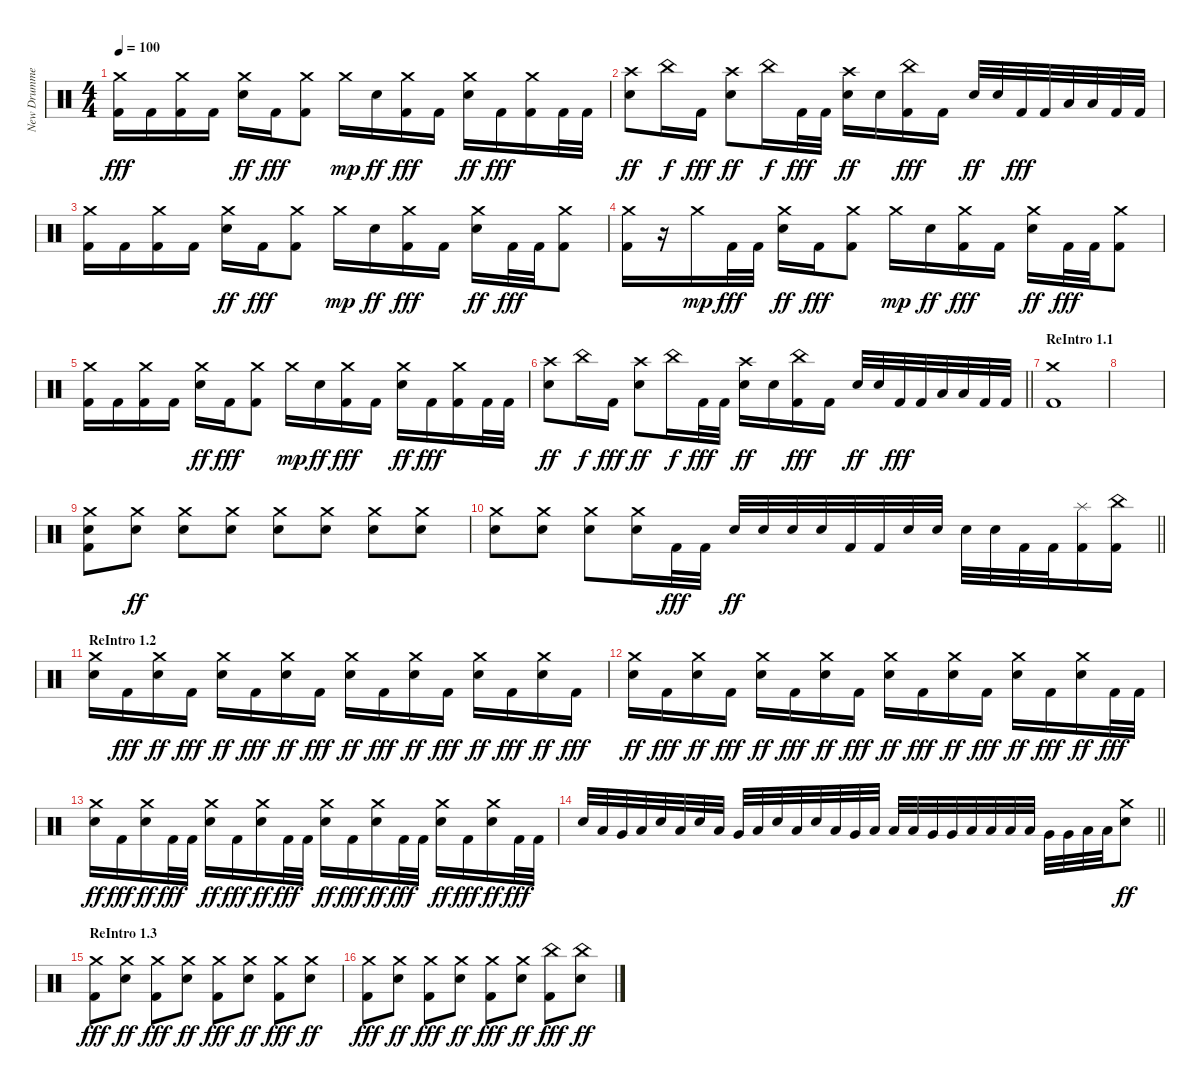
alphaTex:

\track ("New Drummer" "New Drumme") {instrument percussion}
\staff {score}
\articulation defaults
\ts (4 4)
\tempo 100
\clef neutral
\ks c
("Crash medium (hit)" "Kick (hit) 2").16{dy fff} "Kick (hit) 2".16 ("Crash medium (hit)" "Kick (hit) 2").16 "Kick (hit) 2".16 ("Crash medium (hit)" "Electric Snare (hit)").16{dy ff} "Kick (hit) 2".16{dy fff} ("Crash medium (hit)" "Kick (hit) 2").8 "Crash medium (hit)".16{dy mp} "Electric Snare (hit)".16{dy ff} ("Crash medium (hit)" "Kick (hit) 2").16{dy fff} "Kick (hit) 2".16 ("Crash medium (hit)" "Electric Snare (hit)").16{dy ff} "Kick (hit) 2".16{dy fff} ("Crash medium (hit)" "Kick (hit) 2").16 "Kick (hit) 2".32 "Kick (hit) 2".32 |
("Crash high (hit)" "Electric Snare (hit)").8{dy ff} "China (hit)".16{dy f} "Kick (hit) 2".16{dy fff} ("Crash high (hit)" "Electric Snare (hit)").8{dy ff} "China (hit)".16{dy f} "Kick (hit) 2".32{dy fff} "Kick (hit) 2".32 ("Crash high (hit)" "Electric Snare (hit)").16{dy ff} "Electric Snare (hit)".16 ("China (hit)" "Kick (hit) 2").16{dy fff} "Kick (hit) 2".16 "Electric Snare (hit)".32{dy ff} "Electric Snare (hit)".32 "Kick (hit) 2".32{dy fff} "Kick (hit) 2".32 "Low Tom (hit)".32 "Low Tom (hit)".32 "Kick (hit) 2".32 "Kick (hit) 2".32 |
("Crash medium (hit)" "Kick (hit) 2").16 "Kick (hit) 2".16 ("Crash medium (hit)" "Kick (hit) 2").16 "Kick (hit) 2".16 ("Crash medium (hit)" "Electric Snare (hit)").16{dy ff} "Kick (hit) 2".16{dy fff} ("Crash medium (hit)" "Kick (hit) 2").8 "Crash medium (hit)".16{dy mp} "Electric Snare (hit)".16{dy ff} ("Crash medium (hit)" "Kick (hit) 2").16{dy fff} "Kick (hit) 2".16 ("Crash medium (hit)" "Electric Snare (hit)").16{dy ff} "Kick (hit) 2".32{dy fff} "Kick (hit) 2".32 ("Crash medium (hit)" "Kick (hit) 2").8 |
("Crash medium (hit)" "Kick (hit) 2").16 r.16 "Crash medium (hit)".16{dy mp} "Kick (hit) 2".32{dy fff} "Kick (hit) 2".32 ("Crash medium (hit)" "Electric Snare (hit)").16{dy ff} "Kick (hit) 2".16{dy fff} ("Crash medium (hit)" "Kick (hit) 2").8 "Crash medium (hit)".16{dy mp} "Electric Snare (hit)".16{dy ff} ("Crash medium (hit)" "Kick (hit) 2").16{dy fff} "Kick (hit) 2".16 ("Crash medium (hit)" "Electric Snare (hit)").16{dy ff} "Kick (hit) 2".32{dy fff} "Kick (hit) 2".32 ("Crash medium (hit)" "Kick (hit) 2").8 |
("Crash medium (hit)" "Kick (hit) 2").16 "Kick (hit) 2".16 ("Crash medium (hit)" "Kick (hit) 2").16 "Kick (hit) 2".16 ("Crash medium (hit)" "Electric Snare (hit)").16{dy ff} "Kick (hit) 2".16{dy fff} ("Crash medium (hit)" "Kick (hit) 2").8 "Crash medium (hit)".16{dy mp} "Electric Snare (hit)".16{dy ff} ("Crash medium (hit)" "Kick (hit) 2").16{dy fff} "Kick (hit) 2".16 ("Crash medium (hit)" "Electric Snare (hit)").16{dy ff} "Kick (hit) 2".16{dy fff} ("Crash medium (hit)" "Kick (hit) 2").16 "Kick (hit) 2".32 "Kick (hit) 2".32 |
\barLineRight lightlight
("Crash high (hit)" "Electric Snare (hit)").8{dy ff} "China (hit)".16{dy f} "Kick (hit) 2".16{dy fff} ("Crash high (hit)" "Electric Snare (hit)").8{dy ff} "China (hit)".16{dy f} "Kick (hit) 2".32{dy fff} "Kick (hit) 2".32 ("Crash high (hit)" "Electric Snare (hit)").16{dy ff} "Electric Snare (hit)".16 ("China (hit)" "Kick (hit) 2").16{dy fff} "Kick (hit) 2".16 "Electric Snare (hit)".32{dy ff} "Electric Snare (hit)".32 "Kick (hit) 2".32{dy fff} "Kick (hit) 2".32 "Low Tom (hit)".32 "Low Tom (hit)".32 "Kick (hit) 2".32 "Kick (hit) 2".32 |
\section ("" "ReIntro 1.1")
("Crash medium (hit)" "Kick (hit) 2").1 |
|
("Crash medium (hit)" "Electric Snare (hit)" "Kick (hit) 2").8 ("Crash medium (hit)" "Electric Snare (hit)").8{dy ff} ("Crash medium (hit)" "Electric Snare (hit)").8 ("Crash medium (hit)" "Electric Snare (hit)").8 ("Crash medium (hit)" "Electric Snare (hit)").8 ("Crash medium (hit)" "Electric Snare (hit)").8 ("Crash medium (hit)" "Electric Snare (hit)").8 ("Crash medium (hit)" "Electric Snare (hit)").8 |
\barLineRight lightlight
("Crash medium (hit)" "Electric Snare (hit)").8 ("Crash medium (hit)" "Electric Snare (hit)").8 ("Crash medium (hit)" "Electric Snare (hit)").8 ("Crash medium (hit)" "Electric Snare (hit)").16 "Kick (hit) 2".32{dy fff} "Kick (hit) 2".32 "Electric Snare (hit)".32{dy ff} "Electric Snare (hit)".32 "Electric Snare (hit)".32 "Electric Snare (hit)".32 "Kick (hit) 2".32 "Kick (hit) 2".32 "Electric Snare (hit)".32 "Electric Snare (hit)".32 "Electric Snare (hit)".32 "Electric Snare (hit)".32 "Kick (hit) 2".32 "Kick (hit) 2".32 ("Splash (hit)" "Kick (hit) 2").16 ("China (hit)" "Kick (hit) 2").16 |
\section ("" "ReIntro 1.2")
("Crash medium (hit)" "Electric Snare (hit)").16 "Kick (hit) 2".16{dy fff} ("Crash medium (hit)" "Electric Snare (hit)").16{dy ff} "Kick (hit) 2".16{dy fff} ("Crash medium (hit)" "Electric Snare (hit)").16{dy ff} "Kick (hit) 2".16{dy fff} ("Crash medium (hit)" "Electric Snare (hit)").16{dy ff} "Kick (hit) 2".16{dy fff} ("Crash medium (hit)" "Electric Snare (hit)").16{dy ff} "Kick (hit) 2".16{dy fff} ("Crash medium (hit)" "Electric Snare (hit)").16{dy ff} "Kick (hit) 2".16{dy fff} ("Crash medium (hit)" "Electric Snare (hit)").16{dy ff} "Kick (hit) 2".16{dy fff} ("Crash medium (hit)" "Electric Snare (hit)").16{dy ff} "Kick (hit) 2".16{dy fff} |
("Crash medium (hit)" "Electric Snare (hit)").16{dy ff} "Kick (hit) 2".16{dy fff} ("Crash medium (hit)" "Electric Snare (hit)").16{dy ff} "Kick (hit) 2".16{dy fff} ("Crash medium (hit)" "Electric Snare (hit)").16{dy ff} "Kick (hit) 2".16{dy fff} ("Crash medium (hit)" "Electric Snare (hit)").16{dy ff} "Kick (hit) 2".16{dy fff} ("Crash medium (hit)" "Electric Snare (hit)").16{dy ff} "Kick (hit) 2".16{dy fff} ("Crash medium (hit)" "Electric Snare (hit)").16{dy ff} "Kick (hit) 2".16{dy fff} ("Crash medium (hit)" "Electric Snare (hit)").16{dy ff} "Kick (hit) 2".16{dy fff} ("Crash medium (hit)" "Electric Snare (hit)").16{dy ff} "Kick (hit) 2".32{dy fff} "Kick (hit) 2".32 |
("Crash medium (hit)" "Electric Snare (hit)").16{dy ff} "Kick (hit) 2".16{dy fff} ("Crash medium (hit)" "Electric Snare (hit)").16{dy ff} "Kick (hit) 2".32{dy fff} "Kick (hit) 2".32 ("Crash medium (hit)" "Electric Snare (hit)").16{dy ff} "Kick (hit) 2".16{dy fff} ("Crash medium (hit)" "Electric Snare (hit)").16{dy ff} "Kick (hit) 2".32{dy fff} "Kick (hit) 2".32 ("Crash medium (hit)" "Electric Snare (hit)").16{dy ff} "Kick (hit) 2".16{dy fff} ("Crash medium (hit)" "Electric Snare (hit)").16{dy ff} "Kick (hit) 2".32{dy fff} "Kick (hit) 2".32 ("Crash medium (hit)" "Electric Snare (hit)").16{dy ff} "Kick (hit) 2".16{dy fff} ("Crash medium (hit)" "Electric Snare (hit)").16{dy ff} "Kick (hit) 2".32{dy fff} "Kick (hit) 2".32 |
\barLineRight lightlight "Electric Snare (hit)".32 "Low Tom (hit)".32 "Very Low Tom (hit)".32 "Low Floor Tom (hit)".32 "Electric Snare (hit)".32 "Low Tom (hit)".32 "Electric Snare (hit)".32 "Low Tom (hit)".32 "Very Low Tom (hit)".32 "Low Floor Tom (hit)".32 "Electric Snare (hit)".32 "Low Tom (hit)".32 "Electric Snare (hit)".32 "Low Tom (hit)".32 "Very Low Tom (hit)".32 "Low Floor Tom (hit)".32 "Low Tom (hit)".32 "Low Tom (hit)".32 "Very Low Tom (hit)".32 "Very Low Tom (hit)".32 "Low Floor Tom (hit)".32 "Low Floor Tom (hit)".32 "Low Tom (hit)".32 "Low Tom (hit)".32 "Very Low Tom (hit)".32 "Very Low Tom (hit)".32 "Low Floor Tom (hit)".32 "Low Floor Tom (hit)".32
("Crash medium (hit)" "Electric Snare (hit)").8{dy ff} |
\section ("" "ReIntro 1.3")
("Crash medium (hit)" "Kick (hit) 2").8{dy fff} ("Crash medium (hit)" "Electric Snare (hit)").8{dy ff} ("Crash medium (hit)" "Kick (hit) 2").8{dy fff} ("Crash medium (hit)" "Electric Snare (hit)").8{dy ff} ("Crash medium (hit)" "Kick (hit) 2").8{dy fff} ("Crash medium (hit)" "Electric Snare (hit)").8{dy ff} ("Crash medium (hit)" "Kick (hit) 2").8{dy fff} ("Crash medium (hit)" "Electric Snare (hit)").8{dy ff} |
("Crash medium (hit)" "Kick (hit) 2").8{dy fff} ("Crash medium (hit)" "Electric Snare (hit)").8{dy ff} ("Crash medium (hit)" "Kick (hit) 2").8{dy fff} ("Crash medium (hit)" "Electric Snare (hit)").8{dy ff} ("Crash medium (hit)" "Kick (hit) 2").8{dy fff} ("Crash medium (hit)" "Electric Snare (hit)").8{dy ff} ("China (hit)" "Kick (hit) 2").8{dy fff} ("China (hit)" "Electric Snare (hit)").8{dy ff}
